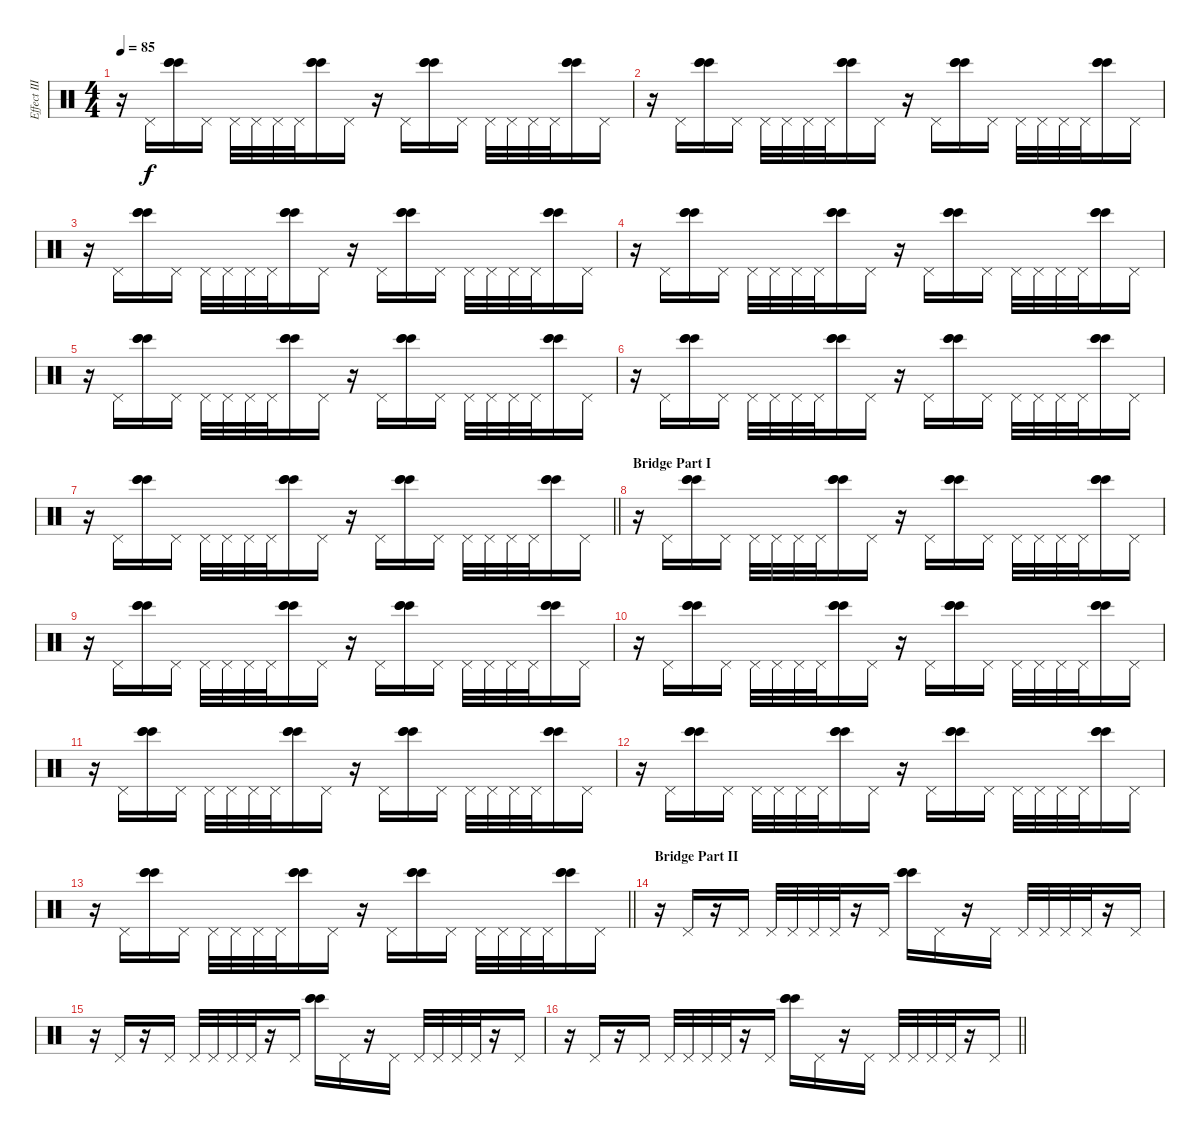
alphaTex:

\track ("Effect III" "Effect III") {instrument percussion}
\staff {score}
\articulation defaults
\ts (4 4)
\tempo 85
\clef neutral
\ks c
r.16{dy f} "Pedal Hi-Hat (hit)".16 ("Bongo High (hit)" "Bongo High (hit)" "Bongo High (hit)").16 "Pedal Hi-Hat (hit)".16 "Pedal Hi-Hat (hit)".32 "Pedal Hi-Hat (hit)".32 "Pedal Hi-Hat (hit)".32 "Pedal Hi-Hat (hit)".32 ("Bongo High (hit)" "Bongo High (hit)" "Bongo High (hit)").16 "Pedal Hi-Hat (hit)".16 r.16 "Pedal Hi-Hat (hit)".16 ("Bongo High (hit)" "Bongo High (hit)" "Bongo High (hit)").16 "Pedal Hi-Hat (hit)".16 "Pedal Hi-Hat (hit)".32 "Pedal Hi-Hat (hit)".32 "Pedal Hi-Hat (hit)".32 "Pedal Hi-Hat (hit)".32 ("Bongo High (hit)" "Bongo High (hit)" "Bongo High (hit)").16 "Pedal Hi-Hat (hit)".16 |
r.16 "Pedal Hi-Hat (hit)".16 ("Bongo High (hit)" "Bongo High (hit)" "Bongo High (hit)").16 "Pedal Hi-Hat (hit)".16 "Pedal Hi-Hat (hit)".32 "Pedal Hi-Hat (hit)".32 "Pedal Hi-Hat (hit)".32 "Pedal Hi-Hat (hit)".32 ("Bongo High (hit)" "Bongo High (hit)" "Bongo High (hit)").16 "Pedal Hi-Hat (hit)".16 r.16 "Pedal Hi-Hat (hit)".16 ("Bongo High (hit)" "Bongo High (hit)" "Bongo High (hit)").16 "Pedal Hi-Hat (hit)".16 "Pedal Hi-Hat (hit)".32 "Pedal Hi-Hat (hit)".32 "Pedal Hi-Hat (hit)".32 "Pedal Hi-Hat (hit)".32 ("Bongo High (hit)" "Bongo High (hit)" "Bongo High (hit)").16 "Pedal Hi-Hat (hit)".16 |
r.16 "Pedal Hi-Hat (hit)".16 ("Bongo High (hit)" "Bongo High (hit)" "Bongo High (hit)").16 "Pedal Hi-Hat (hit)".16 "Pedal Hi-Hat (hit)".32 "Pedal Hi-Hat (hit)".32 "Pedal Hi-Hat (hit)".32 "Pedal Hi-Hat (hit)".32 ("Bongo High (hit)" "Bongo High (hit)" "Bongo High (hit)").16 "Pedal Hi-Hat (hit)".16 r.16 "Pedal Hi-Hat (hit)".16 ("Bongo High (hit)" "Bongo High (hit)" "Bongo High (hit)").16 "Pedal Hi-Hat (hit)".16 "Pedal Hi-Hat (hit)".32 "Pedal Hi-Hat (hit)".32 "Pedal Hi-Hat (hit)".32 "Pedal Hi-Hat (hit)".32 ("Bongo High (hit)" "Bongo High (hit)" "Bongo High (hit)").16 "Pedal Hi-Hat (hit)".16 |
r.16 "Pedal Hi-Hat (hit)".16 ("Bongo High (hit)" "Bongo High (hit)" "Bongo High (hit)").16 "Pedal Hi-Hat (hit)".16 "Pedal Hi-Hat (hit)".32 "Pedal Hi-Hat (hit)".32 "Pedal Hi-Hat (hit)".32 "Pedal Hi-Hat (hit)".32 ("Bongo High (hit)" "Bongo High (hit)" "Bongo High (hit)").16 "Pedal Hi-Hat (hit)".16 r.16 "Pedal Hi-Hat (hit)".16 ("Bongo High (hit)" "Bongo High (hit)" "Bongo High (hit)").16 "Pedal Hi-Hat (hit)".16 "Pedal Hi-Hat (hit)".32 "Pedal Hi-Hat (hit)".32 "Pedal Hi-Hat (hit)".32 "Pedal Hi-Hat (hit)".32 ("Bongo High (hit)" "Bongo High (hit)" "Bongo High (hit)").16 "Pedal Hi-Hat (hit)".16 |
r.16 "Pedal Hi-Hat (hit)".16 ("Bongo High (hit)" "Bongo High (hit)" "Bongo High (hit)").16 "Pedal Hi-Hat (hit)".16 "Pedal Hi-Hat (hit)".32 "Pedal Hi-Hat (hit)".32 "Pedal Hi-Hat (hit)".32 "Pedal Hi-Hat (hit)".32 ("Bongo High (hit)" "Bongo High (hit)" "Bongo High (hit)").16 "Pedal Hi-Hat (hit)".16 r.16 "Pedal Hi-Hat (hit)".16 ("Bongo High (hit)" "Bongo High (hit)" "Bongo High (hit)").16 "Pedal Hi-Hat (hit)".16 "Pedal Hi-Hat (hit)".32 "Pedal Hi-Hat (hit)".32 "Pedal Hi-Hat (hit)".32 "Pedal Hi-Hat (hit)".32 ("Bongo High (hit)" "Bongo High (hit)" "Bongo High (hit)").16 "Pedal Hi-Hat (hit)".16 |
r.16 "Pedal Hi-Hat (hit)".16 ("Bongo High (hit)" "Bongo High (hit)" "Bongo High (hit)").16 "Pedal Hi-Hat (hit)".16 "Pedal Hi-Hat (hit)".32 "Pedal Hi-Hat (hit)".32 "Pedal Hi-Hat (hit)".32 "Pedal Hi-Hat (hit)".32 ("Bongo High (hit)" "Bongo High (hit)" "Bongo High (hit)").16 "Pedal Hi-Hat (hit)".16 r.16 "Pedal Hi-Hat (hit)".16 ("Bongo High (hit)" "Bongo High (hit)" "Bongo High (hit)").16 "Pedal Hi-Hat (hit)".16 "Pedal Hi-Hat (hit)".32 "Pedal Hi-Hat (hit)".32 "Pedal Hi-Hat (hit)".32 "Pedal Hi-Hat (hit)".32 ("Bongo High (hit)" "Bongo High (hit)" "Bongo High (hit)").16 "Pedal Hi-Hat (hit)".16 |
\barLineRight lightlight
r.16 "Pedal Hi-Hat (hit)".16 ("Bongo High (hit)" "Bongo High (hit)" "Bongo High (hit)").16 "Pedal Hi-Hat (hit)".16 "Pedal Hi-Hat (hit)".32 "Pedal Hi-Hat (hit)".32 "Pedal Hi-Hat (hit)".32 "Pedal Hi-Hat (hit)".32 ("Bongo High (hit)" "Bongo High (hit)" "Bongo High (hit)").16 "Pedal Hi-Hat (hit)".16 r.16 "Pedal Hi-Hat (hit)".16 ("Bongo High (hit)" "Bongo High (hit)" "Bongo High (hit)").16 "Pedal Hi-Hat (hit)".16 "Pedal Hi-Hat (hit)".32 "Pedal Hi-Hat (hit)".32 "Pedal Hi-Hat (hit)".32 "Pedal Hi-Hat (hit)".32 ("Bongo High (hit)" "Bongo High (hit)" "Bongo High (hit)").16 "Pedal Hi-Hat (hit)".16 |
\section ("" "Bridge Part I")
r.16 "Pedal Hi-Hat (hit)".16 ("Bongo High (hit)" "Bongo High (hit)" "Bongo High (hit)").16 "Pedal Hi-Hat (hit)".16 "Pedal Hi-Hat (hit)".32 "Pedal Hi-Hat (hit)".32 "Pedal Hi-Hat (hit)".32 "Pedal Hi-Hat (hit)".32 ("Bongo High (hit)" "Bongo High (hit)" "Bongo High (hit)").16 "Pedal Hi-Hat (hit)".16 r.16 "Pedal Hi-Hat (hit)".16 ("Bongo High (hit)" "Bongo High (hit)" "Bongo High (hit)").16 "Pedal Hi-Hat (hit)".16 "Pedal Hi-Hat (hit)".32 "Pedal Hi-Hat (hit)".32 "Pedal Hi-Hat (hit)".32 "Pedal Hi-Hat (hit)".32 ("Bongo High (hit)" "Bongo High (hit)" "Bongo High (hit)").16 "Pedal Hi-Hat (hit)".16 |
r.16 "Pedal Hi-Hat (hit)".16 ("Bongo High (hit)" "Bongo High (hit)" "Bongo High (hit)").16 "Pedal Hi-Hat (hit)".16 "Pedal Hi-Hat (hit)".32 "Pedal Hi-Hat (hit)".32 "Pedal Hi-Hat (hit)".32 "Pedal Hi-Hat (hit)".32 ("Bongo High (hit)" "Bongo High (hit)" "Bongo High (hit)").16 "Pedal Hi-Hat (hit)".16 r.16 "Pedal Hi-Hat (hit)".16 ("Bongo High (hit)" "Bongo High (hit)" "Bongo High (hit)").16 "Pedal Hi-Hat (hit)".16 "Pedal Hi-Hat (hit)".32 "Pedal Hi-Hat (hit)".32 "Pedal Hi-Hat (hit)".32 "Pedal Hi-Hat (hit)".32 ("Bongo High (hit)" "Bongo High (hit)" "Bongo High (hit)").16 "Pedal Hi-Hat (hit)".16 |
r.16 "Pedal Hi-Hat (hit)".16 ("Bongo High (hit)" "Bongo High (hit)" "Bongo High (hit)").16 "Pedal Hi-Hat (hit)".16 "Pedal Hi-Hat (hit)".32 "Pedal Hi-Hat (hit)".32 "Pedal Hi-Hat (hit)".32 "Pedal Hi-Hat (hit)".32 ("Bongo High (hit)" "Bongo High (hit)" "Bongo High (hit)").16 "Pedal Hi-Hat (hit)".16 r.16 "Pedal Hi-Hat (hit)".16 ("Bongo High (hit)" "Bongo High (hit)" "Bongo High (hit)").16 "Pedal Hi-Hat (hit)".16 "Pedal Hi-Hat (hit)".32 "Pedal Hi-Hat (hit)".32 "Pedal Hi-Hat (hit)".32 "Pedal Hi-Hat (hit)".32 ("Bongo High (hit)" "Bongo High (hit)" "Bongo High (hit)").16 "Pedal Hi-Hat (hit)".16 |
r.16 "Pedal Hi-Hat (hit)".16 ("Bongo High (hit)" "Bongo High (hit)" "Bongo High (hit)").16 "Pedal Hi-Hat (hit)".16 "Pedal Hi-Hat (hit)".32 "Pedal Hi-Hat (hit)".32 "Pedal Hi-Hat (hit)".32 "Pedal Hi-Hat (hit)".32 ("Bongo High (hit)" "Bongo High (hit)" "Bongo High (hit)").16 "Pedal Hi-Hat (hit)".16 r.16 "Pedal Hi-Hat (hit)".16 ("Bongo High (hit)" "Bongo High (hit)" "Bongo High (hit)").16 "Pedal Hi-Hat (hit)".16 "Pedal Hi-Hat (hit)".32 "Pedal Hi-Hat (hit)".32 "Pedal Hi-Hat (hit)".32 "Pedal Hi-Hat (hit)".32 ("Bongo High (hit)" "Bongo High (hit)" "Bongo High (hit)").16 "Pedal Hi-Hat (hit)".16 |
r.16 "Pedal Hi-Hat (hit)".16 ("Bongo High (hit)" "Bongo High (hit)" "Bongo High (hit)").16 "Pedal Hi-Hat (hit)".16 "Pedal Hi-Hat (hit)".32 "Pedal Hi-Hat (hit)".32 "Pedal Hi-Hat (hit)".32 "Pedal Hi-Hat (hit)".32 ("Bongo High (hit)" "Bongo High (hit)" "Bongo High (hit)").16 "Pedal Hi-Hat (hit)".16 r.16 "Pedal Hi-Hat (hit)".16 ("Bongo High (hit)" "Bongo High (hit)" "Bongo High (hit)").16 "Pedal Hi-Hat (hit)".16 "Pedal Hi-Hat (hit)".32 "Pedal Hi-Hat (hit)".32 "Pedal Hi-Hat (hit)".32 "Pedal Hi-Hat (hit)".32 ("Bongo High (hit)" "Bongo High (hit)" "Bongo High (hit)").16 "Pedal Hi-Hat (hit)".16 |
\barLineRight lightlight
r.16 "Pedal Hi-Hat (hit)".16 ("Bongo High (hit)" "Bongo High (hit)" "Bongo High (hit)").16 "Pedal Hi-Hat (hit)".16 "Pedal Hi-Hat (hit)".32 "Pedal Hi-Hat (hit)".32 "Pedal Hi-Hat (hit)".32 "Pedal Hi-Hat (hit)".32 ("Bongo High (hit)" "Bongo High (hit)" "Bongo High (hit)").16 "Pedal Hi-Hat (hit)".16 r.16 "Pedal Hi-Hat (hit)".16 ("Bongo High (hit)" "Bongo High (hit)" "Bongo High (hit)").16 "Pedal Hi-Hat (hit)".16 "Pedal Hi-Hat (hit)".32 "Pedal Hi-Hat (hit)".32 "Pedal Hi-Hat (hit)".32 "Pedal Hi-Hat (hit)".32 ("Bongo High (hit)" "Bongo High (hit)" "Bongo High (hit)").16 "Pedal Hi-Hat (hit)".16 |
\section ("" "Bridge Part II")
r.16 "Pedal Hi-Hat (hit)".16 r.16 "Pedal Hi-Hat (hit)".16 "Pedal Hi-Hat (hit)".32 "Pedal Hi-Hat (hit)".32 "Pedal Hi-Hat (hit)".32 "Pedal Hi-Hat (hit)".32 r.16 "Pedal Hi-Hat (hit)".16 ("Bongo High (hit)" "Bongo High (hit)" "Bongo High (hit)").16 "Pedal Hi-Hat (hit)".16 r.16 "Pedal Hi-Hat (hit)".16 "Pedal Hi-Hat (hit)".32 "Pedal Hi-Hat (hit)".32 "Pedal Hi-Hat (hit)".32 "Pedal Hi-Hat (hit)".32 r.16 "Pedal Hi-Hat (hit)".16 |
r.16 "Pedal Hi-Hat (hit)".16 r.16 "Pedal Hi-Hat (hit)".16 "Pedal Hi-Hat (hit)".32 "Pedal Hi-Hat (hit)".32 "Pedal Hi-Hat (hit)".32 "Pedal Hi-Hat (hit)".32 r.16 "Pedal Hi-Hat (hit)".16 ("Bongo High (hit)" "Bongo High (hit)" "Bongo High (hit)").16 "Pedal Hi-Hat (hit)".16 r.16 "Pedal Hi-Hat (hit)".16 "Pedal Hi-Hat (hit)".32 "Pedal Hi-Hat (hit)".32 "Pedal Hi-Hat (hit)".32 "Pedal Hi-Hat (hit)".32 r.16 "Pedal Hi-Hat (hit)".16 |
\barLineRight lightlight
r.16 "Pedal Hi-Hat (hit)".16 r.16 "Pedal Hi-Hat (hit)".16 "Pedal Hi-Hat (hit)".32 "Pedal Hi-Hat (hit)".32 "Pedal Hi-Hat (hit)".32 "Pedal Hi-Hat (hit)".32 r.16 "Pedal Hi-Hat (hit)".16 ("Bongo High (hit)" "Bongo High (hit)" "Bongo High (hit)").16 "Pedal Hi-Hat (hit)".16 r.16 "Pedal Hi-Hat (hit)".16 "Pedal Hi-Hat (hit)".32 "Pedal Hi-Hat (hit)".32 "Pedal Hi-Hat (hit)".32 "Pedal Hi-Hat (hit)".32 r.16 "Pedal Hi-Hat (hit)".16
